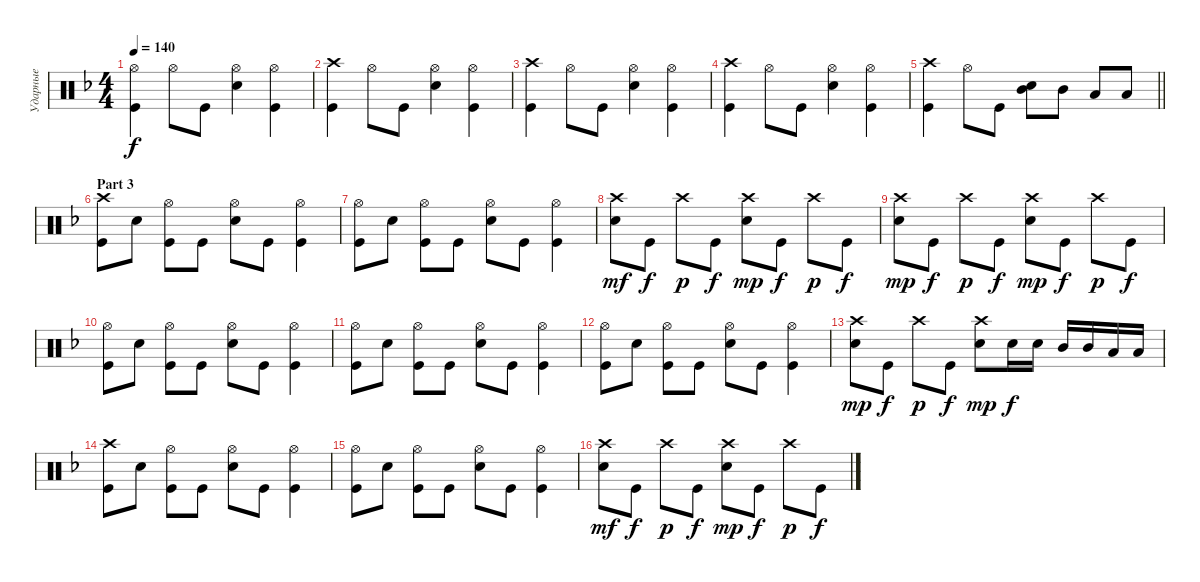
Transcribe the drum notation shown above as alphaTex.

\track ("Ударные" "Ударные") {instrument percussion}
\staff {score}
\articulation defaults
\ts (4 4)
\tempo 140
\clef neutral
\ks dminor
("Kick (hit)" "Hi-Hat (open)").4{dy f} "Hi-Hat (open)".8 "Kick (hit)".8 ("Snare (hit) 2" "Hi-Hat (open)").4 ("Kick (hit)" "Hi-Hat (open)").4 |
("Kick (hit)" "Crash high (hit)").4 "Hi-Hat (open)".8 "Kick (hit)".8 ("Snare (hit) 2" "Hi-Hat (open)").4 ("Kick (hit)" "Hi-Hat (open)").4 |
("Kick (hit)" "Crash high (hit)").4 "Hi-Hat (open)".8 "Kick (hit)".8 ("Snare (hit) 2" "Hi-Hat (open)").4 ("Kick (hit)" "Hi-Hat (open)").4 |
("Kick (hit)" "Crash high (hit)").4 "Hi-Hat (open)".8 "Kick (hit)".8 ("Snare (hit) 2" "Hi-Hat (open)").4 ("Kick (hit)" "Hi-Hat (open)").4 |
\barLineRight lightlight
("Kick (hit)" "Crash high (hit)").4 "Hi-Hat (open)".8 "Kick (hit)".8 ("Snare (hit) 2" "Mid Tom (hit)").8 "Mid Tom (hit)".8 "Low Tom (hit)".8 "Low Tom (hit)".8 |
\section ("" "Part 3")
("Kick (hit)" "Crash high (hit)").8 "Snare (hit) 2".8 ("Kick (hit)" "Hi-Hat (open)").8 "Kick (hit)".8 ("Snare (hit) 2" "Hi-Hat (open)").8 "Kick (hit)".8 ("Kick (hit)" "Hi-Hat (open)").4 |
("Kick (hit)" "Hi-Hat (open)").8 "Snare (hit) 2".8 ("Kick (hit)" "Hi-Hat (open)").8 "Kick (hit)".8 ("Snare (hit) 2" "Hi-Hat (open)").8 "Kick (hit)".8 ("Kick (hit)" "Hi-Hat (open)").4 |
("Snare (hit) 2" "Crash high (hit)").8{dy mf} "Kick (hit)".8{dy f} "Crash high (hit)".8{dy p} "Kick (hit)".8{dy f} ("Snare (hit) 2" "Crash high (hit)").8{dy mp} "Kick (hit)".8{dy f} "Crash high (hit)".8{dy p} "Kick (hit)".8{dy f} |
("Snare (hit) 2" "Crash high (hit)").8{dy mp} "Kick (hit)".8{dy f} "Crash high (hit)".8{dy p} "Kick (hit)".8{dy f} ("Snare (hit) 2" "Crash high (hit)").8{dy mp} "Kick (hit)".8{dy f} "Crash high (hit)".8{dy p} "Kick (hit)".8{dy f} |
("Kick (hit)" "Hi-Hat (open)").8 "Snare (hit) 2".8 ("Kick (hit)" "Hi-Hat (open)").8 "Kick (hit)".8 ("Snare (hit) 2" "Hi-Hat (open)").8 "Kick (hit)".8 ("Kick (hit)" "Hi-Hat (open)").4 |
("Kick (hit)" "Hi-Hat (open)").8 "Snare (hit) 2".8 ("Kick (hit)" "Hi-Hat (open)").8 "Kick (hit)".8 ("Snare (hit) 2" "Hi-Hat (open)").8 "Kick (hit)".8 ("Kick (hit)" "Hi-Hat (open)").4 |
("Kick (hit)" "Hi-Hat (open)").8 "Snare (hit) 2".8 ("Kick (hit)" "Hi-Hat (open)").8 "Kick (hit)".8 ("Snare (hit) 2" "Hi-Hat (open)").8 "Kick (hit)".8 ("Kick (hit)" "Hi-Hat (open)").4 |
("Snare (hit) 2" "Crash high (hit)").8{dy mp} "Kick (hit)".8{dy f} "Crash high (hit)".8{dy p} "Kick (hit)".8{dy f} ("Snare (hit) 2" "Crash high (hit)").8{dy mp} "Snare (hit) 2".16{dy f} "Snare (hit) 2".16 "Mid Tom (hit)".16 "Mid Tom (hit)".16 "Low Tom (hit)".16 "Low Tom (hit)".16 |
("Kick (hit)" "Crash high (hit)").8 "Snare (hit) 2".8 ("Kick (hit)" "Hi-Hat (open)").8 "Kick (hit)".8 ("Snare (hit) 2" "Hi-Hat (open)").8 "Kick (hit)".8 ("Kick (hit)" "Hi-Hat (open)").4 |
("Kick (hit)" "Hi-Hat (open)").8 "Snare (hit) 2".8 ("Kick (hit)" "Hi-Hat (open)").8 "Kick (hit)".8 ("Snare (hit) 2" "Hi-Hat (open)").8 "Kick (hit)".8 ("Kick (hit)" "Hi-Hat (open)").4 |
("Snare (hit) 2" "Crash high (hit)").8{dy mf} "Kick (hit)".8{dy f} "Crash high (hit)".8{dy p} "Kick (hit)".8{dy f} ("Snare (hit) 2" "Crash high (hit)").8{dy mp} "Kick (hit)".8{dy f} "Crash high (hit)".8{dy p} "Kick (hit)".8{dy f}
